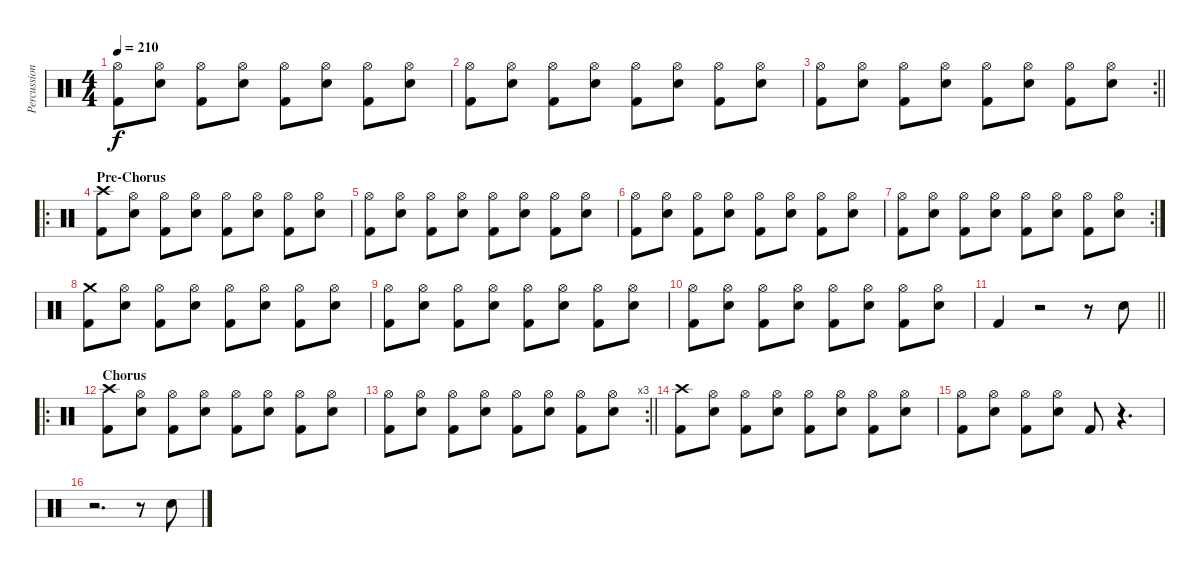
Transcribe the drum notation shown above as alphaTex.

\track ("Percussion" "Percussion") {instrument percussion}
\staff {score}
\articulation defaults
\ts (4 4)
\tempo 210
\clef neutral
\ks c
("Hi-Hat (open)" "Kick (hit) 2").8{dy f} ("Hi-Hat (open)" "Electric Snare (hit)").8 ("Hi-Hat (open)" "Kick (hit) 2").8 ("Hi-Hat (open)" "Electric Snare (hit)").8 ("Hi-Hat (open)" "Kick (hit) 2").8 ("Hi-Hat (open)" "Electric Snare (hit)").8 ("Hi-Hat (open)" "Kick (hit) 2").8 ("Hi-Hat (open)" "Electric Snare (hit)").8 |
("Hi-Hat (open)" "Kick (hit) 2").8 ("Hi-Hat (open)" "Electric Snare (hit)").8 ("Hi-Hat (open)" "Kick (hit) 2").8 ("Hi-Hat (open)" "Electric Snare (hit)").8 ("Hi-Hat (open)" "Kick (hit) 2").8 ("Hi-Hat (open)" "Electric Snare (hit)").8 ("Hi-Hat (open)" "Kick (hit) 2").8 ("Hi-Hat (open)" "Electric Snare (hit)").8 |
\rc 2
\barLineRight lightlight
("Hi-Hat (open)" "Kick (hit) 2").8 ("Hi-Hat (open)" "Electric Snare (hit)").8 ("Hi-Hat (open)" "Kick (hit) 2").8 ("Hi-Hat (open)" "Electric Snare (hit)").8 ("Hi-Hat (open)" "Kick (hit) 2").8 ("Hi-Hat (open)" "Electric Snare (hit)").8 ("Hi-Hat (open)" "Kick (hit) 2").8 ("Hi-Hat (open)" "Electric Snare (hit)").8 |
\ro
\section ("" "Pre-Chorus")
("Crash high (hit)" "Kick (hit) 2").8 ("Hi-Hat (open)" "Electric Snare (hit)").8 ("Hi-Hat (open)" "Kick (hit) 2").8 ("Hi-Hat (open)" "Electric Snare (hit)").8 ("Hi-Hat (open)" "Kick (hit) 2").8 ("Hi-Hat (open)" "Electric Snare (hit)").8 ("Hi-Hat (open)" "Kick (hit) 2").8 ("Hi-Hat (open)" "Electric Snare (hit)").8 |
("Hi-Hat (open)" "Kick (hit) 2").8 ("Hi-Hat (open)" "Electric Snare (hit)").8 ("Hi-Hat (open)" "Kick (hit) 2").8 ("Hi-Hat (open)" "Electric Snare (hit)").8 ("Hi-Hat (open)" "Kick (hit) 2").8 ("Hi-Hat (open)" "Electric Snare (hit)").8 ("Hi-Hat (open)" "Kick (hit) 2").8 ("Hi-Hat (open)" "Electric Snare (hit)").8 |
("Hi-Hat (open)" "Kick (hit) 2").8 ("Hi-Hat (open)" "Electric Snare (hit)").8 ("Hi-Hat (open)" "Kick (hit) 2").8 ("Hi-Hat (open)" "Electric Snare (hit)").8 ("Hi-Hat (open)" "Kick (hit) 2").8 ("Hi-Hat (open)" "Electric Snare (hit)").8 ("Hi-Hat (open)" "Kick (hit) 2").8 ("Hi-Hat (open)" "Electric Snare (hit)").8 |
\rc 2
("Hi-Hat (open)" "Kick (hit) 2").8 ("Hi-Hat (open)" "Electric Snare (hit)").8 ("Hi-Hat (open)" "Kick (hit) 2").8 ("Hi-Hat (open)" "Electric Snare (hit)").8 ("Hi-Hat (open)" "Kick (hit) 2").8 ("Hi-Hat (open)" "Electric Snare (hit)").8 ("Hi-Hat (open)" "Kick (hit) 2").8 ("Hi-Hat (open)" "Electric Snare (hit)").8 |
("Crash medium (hit)" "Kick (hit) 2").8 ("Hi-Hat (open)" "Electric Snare (hit)").8 ("Hi-Hat (open)" "Kick (hit) 2").8 ("Hi-Hat (open)" "Electric Snare (hit)").8 ("Hi-Hat (open)" "Kick (hit) 2").8 ("Hi-Hat (open)" "Electric Snare (hit)").8 ("Hi-Hat (open)" "Kick (hit) 2").8 ("Hi-Hat (open)" "Electric Snare (hit)").8 |
("Hi-Hat (open)" "Kick (hit) 2").8 ("Hi-Hat (open)" "Electric Snare (hit)").8 ("Hi-Hat (open)" "Kick (hit) 2").8 ("Hi-Hat (open)" "Electric Snare (hit)").8 ("Hi-Hat (open)" "Kick (hit) 2").8 ("Hi-Hat (open)" "Electric Snare (hit)").8 ("Hi-Hat (open)" "Kick (hit) 2").8 ("Hi-Hat (open)" "Electric Snare (hit)").8 |
("Hi-Hat (open)" "Kick (hit) 2").8 ("Hi-Hat (open)" "Electric Snare (hit)").8 ("Hi-Hat (open)" "Kick (hit) 2").8 ("Hi-Hat (open)" "Electric Snare (hit)").8 ("Hi-Hat (open)" "Kick (hit) 2").8 ("Hi-Hat (open)" "Electric Snare (hit)").8 ("Hi-Hat (open)" "Kick (hit) 2").8 ("Hi-Hat (open)" "Electric Snare (hit)").8 |
\barLineRight lightlight "Kick (hit) 2".4
r.2 r.8 "Electric Snare (hit)".8 |
\ro
\section ("" "Chorus")
("Crash high (hit)" "Kick (hit) 2").8 ("Hi-Hat (open)" "Electric Snare (hit)").8 ("Hi-Hat (open)" "Kick (hit) 2").8 ("Hi-Hat (open)" "Electric Snare (hit)").8 ("Hi-Hat (open)" "Kick (hit) 2").8 ("Hi-Hat (open)" "Electric Snare (hit)").8 ("Hi-Hat (open)" "Kick (hit) 2").8 ("Hi-Hat (open)" "Electric Snare (hit)").8 |
\rc 3
\barLineRight lightlight
("Hi-Hat (open)" "Kick (hit) 2").8 ("Hi-Hat (open)" "Electric Snare (hit)").8 ("Hi-Hat (open)" "Kick (hit) 2").8 ("Hi-Hat (open)" "Electric Snare (hit)").8 ("Hi-Hat (open)" "Kick (hit) 2").8 ("Hi-Hat (open)" "Electric Snare (hit)").8 ("Hi-Hat (open)" "Kick (hit) 2").8 ("Hi-Hat (open)" "Electric Snare (hit)").8 |
("Crash high (hit)" "Kick (hit) 2").8 ("Hi-Hat (open)" "Electric Snare (hit)").8 ("Hi-Hat (open)" "Kick (hit) 2").8 ("Hi-Hat (open)" "Electric Snare (hit)").8 ("Hi-Hat (open)" "Kick (hit) 2").8 ("Hi-Hat (open)" "Electric Snare (hit)").8 ("Hi-Hat (open)" "Kick (hit) 2").8 ("Hi-Hat (open)" "Electric Snare (hit)").8 |
("Hi-Hat (open)" "Kick (hit) 2").8 ("Hi-Hat (open)" "Electric Snare (hit)").8 ("Hi-Hat (open)" "Kick (hit) 2").8 ("Hi-Hat (open)" "Electric Snare (hit)").8 "Kick (hit) 2".8 r.4{d} |
r.2{d} r.8 "Electric Snare (hit)".8
